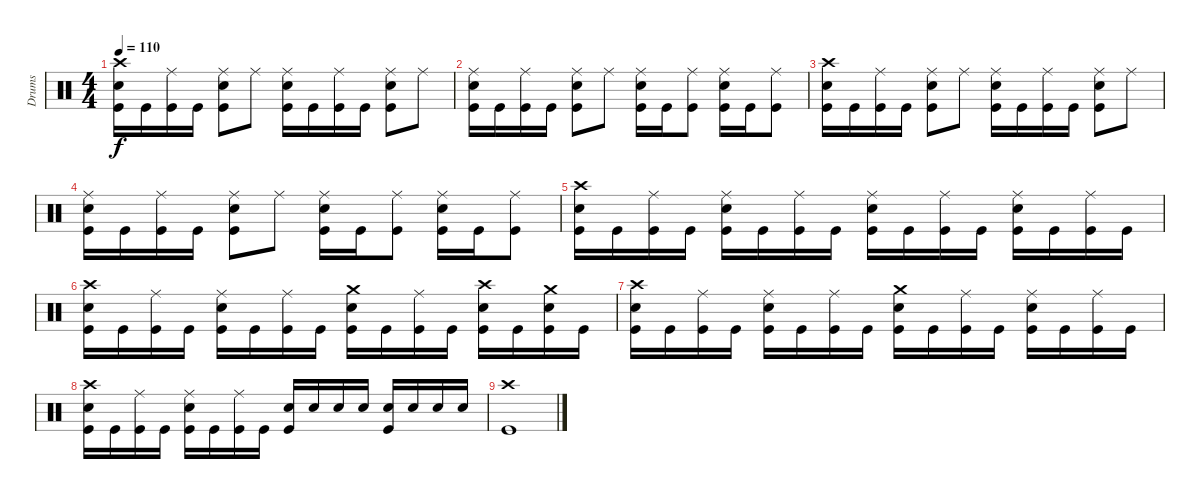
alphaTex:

\track ("Drums" "Drums") {instrument percussion}
\staff {score}
\articulation defaults
\ts (4 4)
\tempo 110
\clef neutral
\ks c
("Crash high (hit)" "Snare (hit) 2" "Kick (hit)").16{dy f} "Kick (hit)".16 ("Ride (middle)" "Kick (hit)").16 "Kick (hit)".16 ("Ride (middle)" "Snare (hit) 2" "Kick (hit)").8 "Ride (middle)".8 ("Ride (middle)" "Snare (hit) 2" "Kick (hit)").16 "Kick (hit)".16 ("Ride (middle)" "Kick (hit)").16 "Kick (hit)".16 ("Ride (middle)" "Snare (hit) 2" "Kick (hit)").8 "Ride (middle)".8 |
("Ride (middle)" "Snare (hit) 2" "Kick (hit)").16 "Kick (hit)".16 ("Ride (middle)" "Kick (hit)").16 "Kick (hit)".16 ("Ride (middle)" "Snare (hit) 2" "Kick (hit)").8 "Ride (middle)".8 ("Ride (middle)" "Snare (hit) 2" "Kick (hit)").16 "Kick (hit)".16 ("Ride (middle)" "Kick (hit)").8 ("Ride (middle)" "Snare (hit) 2" "Kick (hit)").16 "Kick (hit)".16 ("Ride (middle)" "Kick (hit)").8 |
("Crash high (hit)" "Snare (hit) 2" "Kick (hit)").16 "Kick (hit)".16 ("Ride (middle)" "Kick (hit)").16 "Kick (hit)".16 ("Ride (middle)" "Snare (hit) 2" "Kick (hit)").8 "Ride (middle)".8 ("Ride (middle)" "Snare (hit) 2" "Kick (hit)").16 "Kick (hit)".16 ("Ride (middle)" "Kick (hit)").16 "Kick (hit)".16 ("Ride (middle)" "Snare (hit) 2" "Kick (hit)").8 "Ride (middle)".8 |
("Ride (middle)" "Snare (hit) 2" "Kick (hit)").16 "Kick (hit)".16 ("Ride (middle)" "Kick (hit)").16 "Kick (hit)".16 ("Ride (middle)" "Snare (hit) 2" "Kick (hit)").8 "Ride (middle)".8 ("Ride (middle)" "Snare (hit) 2" "Kick (hit)").16 "Kick (hit)".16 ("Ride (middle)" "Kick (hit)").8 ("Ride (middle)" "Snare (hit) 2" "Kick (hit)").16 "Kick (hit)".16 ("Ride (middle)" "Kick (hit)").8 |
("Crash high (hit)" "Snare (hit) 2" "Kick (hit)").16 "Kick (hit)".16 ("Ride (middle)" "Kick (hit)").16 "Kick (hit)".16 ("Ride (middle)" "Snare (hit) 2" "Kick (hit)").16 "Kick (hit)".16 ("Ride (middle)" "Kick (hit)").16 "Kick (hit)".16 ("Ride (middle)" "Snare (hit) 2" "Kick (hit)").16 "Kick (hit)".16 ("Ride (middle)" "Kick (hit)").16 "Kick (hit)".16 ("Ride (middle)" "Snare (hit) 2" "Kick (hit)").16 "Kick (hit)".16 ("Ride (middle)" "Kick (hit)").16 "Kick (hit)".16 |
("Crash high (hit)" "Snare (hit) 2" "Kick (hit)").16 "Kick (hit)".16 ("Ride (middle)" "Kick (hit)").16 "Kick (hit)".16 ("Ride (middle)" "Snare (hit) 2" "Kick (hit)").16 "Kick (hit)".16 ("Ride (middle)" "Kick (hit)").16 "Kick (hit)".16 ("Crash medium (hit)" "Snare (hit) 2" "Kick (hit)").16 "Kick (hit)".16 ("Ride (middle)" "Kick (hit)").16 "Kick (hit)".16 ("Crash high (hit)" "Snare (hit) 2" "Kick (hit)").16 "Kick (hit)".16 ("Crash medium (hit)" "Snare (hit) 2" "Kick (hit)").16 "Kick (hit)".16 |
("Crash high (hit)" "Snare (hit) 2" "Kick (hit)").16 "Kick (hit)".16 ("Ride (middle)" "Kick (hit)").16 "Kick (hit)".16 ("Ride (middle)" "Snare (hit) 2" "Kick (hit)").16 "Kick (hit)".16 ("Ride (middle)" "Kick (hit)").16 "Kick (hit)".16 ("Crash medium (hit)" "Snare (hit) 2" "Kick (hit)").16 "Kick (hit)".16 ("Ride (middle)" "Kick (hit)").16 "Kick (hit)".16 ("Ride (middle)" "Snare (hit) 2" "Kick (hit)").16 "Kick (hit)".16 ("Ride (middle)" "Kick (hit)").16 "Kick (hit)".16 |
("Crash high (hit)" "Snare (hit) 2" "Kick (hit)").16 "Kick (hit)".16 ("Ride (middle)" "Kick (hit)").16 "Kick (hit)".16 ("Ride (middle)" "Snare (hit) 2" "Kick (hit)").16 "Kick (hit)".16 ("Ride (middle)" "Kick (hit)").16 "Kick (hit)".16 ("Snare (hit) 2" "Kick (hit)").16 "Snare (hit) 2".16 "Snare (hit) 2".16 "Snare (hit) 2".16 ("Snare (hit) 2" "Kick (hit)").16 "Snare (hit) 2".16 "Snare (hit) 2".16 "Snare (hit) 2".16 |
("Crash high (hit)" "Kick (hit)").1
